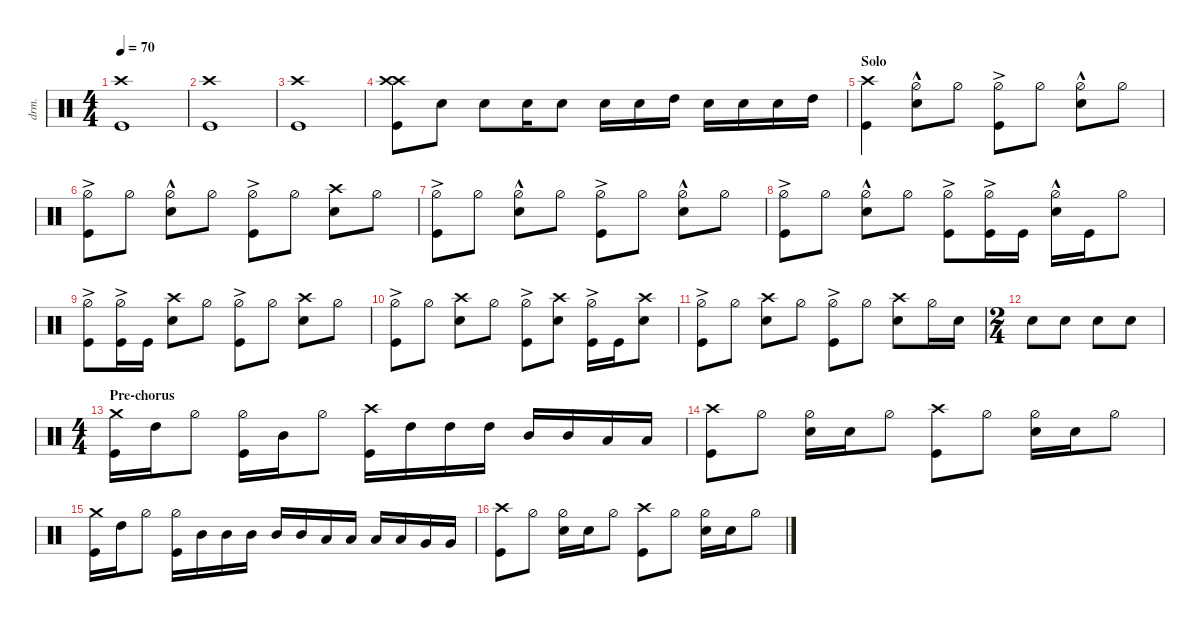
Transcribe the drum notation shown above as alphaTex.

\defaultSystemsLayout 4
\hideDynamics
\bracketExtendMode nobrackets
\otherSystemsTrackNameOrientation horizontal
\track ("Drums" "drm.") {defaultSystemsLayout 4 multiBarRest instrument percussion}
\staff {score}
\articulation defaults
\ts (4 4)
\tempo 70
\clef neutral
\ks c
("Crash high (hit)" "Kick (hit)").1{dy f} |
("Crash high (hit)" "Kick (hit)").1 |
("Crash high (hit)" "Kick (hit)").1 |
("Crash high (hit)" "Kick (hit)" "Crash high (hit)").8 "Snare (hit) 2".8 "Snare (hit) 2".8 "Snare (hit) 2".16 "Snare (hit) 2".8 "Snare (hit) 2".16 "Snare (hit) 2".16 "High Tom (hit)".16{dy ff} "Snare (hit) 2".16{dy f} "Snare (hit) 2".16 "Snare (hit) 2".16 "High Tom (hit)".16{dy ff} |
\section ("" "Solo")
("Crash high (hit)" "Kick (hit)").4{dy f} ("Hi-Hat (half)"{hac} "Snare (hit) 2").8 "Hi-Hat (half)".8 ("Kick (hit)" "Hi-Hat (half)"{ac}).8 "Hi-Hat (half)".8 ("Hi-Hat (half)"{hac} "Snare (hit) 2").8 "Hi-Hat (half)".8 |
("Kick (hit)" "Hi-Hat (half)"{ac}).8 "Hi-Hat (half)".8 ("Hi-Hat (half)"{hac} "Snare (hit) 2").8 "Hi-Hat (half)".8 ("Kick (hit)" "Hi-Hat (half)"{ac}).8 "Hi-Hat (half)".8 ("Snare (hit) 2" "Crash high (hit)").8 "Hi-Hat (half)".8 |
("Kick (hit)" "Hi-Hat (half)"{ac}).8 "Hi-Hat (half)".8 ("Hi-Hat (half)"{hac} "Snare (hit) 2").8 "Hi-Hat (half)".8 ("Kick (hit)" "Hi-Hat (half)"{ac}).8 "Hi-Hat (half)".8 ("Snare (hit) 2" "Hi-Hat (half)"{hac}).8 "Hi-Hat (half)".8 |
("Kick (hit)" "Hi-Hat (half)"{ac}).8 "Hi-Hat (half)".8 ("Hi-Hat (half)"{hac} "Snare (hit) 2").8 "Hi-Hat (half)".8 ("Kick (hit)" "Hi-Hat (half)"{ac}).8 ("Kick (hit)" "Hi-Hat (half)"{ac}).16 "Kick (hit)".16 ("Hi-Hat (half)"{hac} "Snare (hit) 2").16 "Kick (hit)".16 "Hi-Hat (half)".8 |
("Kick (hit)" "Hi-Hat (half)"{ac}).8 ("Kick (hit)" "Hi-Hat (half)"{ac}).16 "Kick (hit)".16 ("Snare (hit) 2" "Crash high (hit)").8 "Hi-Hat (half)".8 ("Kick (hit)" "Hi-Hat (half)"{ac}).8 "Hi-Hat (half)".8 ("Snare (hit) 2" "Crash high (hit)").8 "Hi-Hat (half)".8 |
("Kick (hit)" "Hi-Hat (half)"{ac}).8 "Hi-Hat (half)".8 ("Snare (hit) 2" "Crash high (hit)").8 "Hi-Hat (half)".8 ("Kick (hit)" "Hi-Hat (half)"{ac}).8 ("Snare (hit) 2" "Crash high (hit)").8 ("Kick (hit)" "Hi-Hat (half)"{ac}).16 "Kick (hit)".16 ("Snare (hit) 2" "Crash high (hit)").8 |
("Kick (hit)" "Hi-Hat (half)"{ac}).8 "Hi-Hat (half)".8 ("Snare (hit) 2" "Crash high (hit)").8 "Hi-Hat (half)".8 ("Kick (hit)" "Hi-Hat (half)"{ac}).8 "Hi-Hat (half)".8 ("Snare (hit) 2" "Crash high (hit)").8 "Hi-Hat (half)".16 "Snare (hit) 2".16 |
\ts (2 4)
\beaming (8 2 2)
"Snare (hit) 2".8 "Snare (hit) 2".8 "Snare (hit) 2".8 "Snare (hit) 2".8 |
\ts (4 4)
\beaming (8 2 2 2 2)
\section ("" "Pre-chorus")
("Crash medium (hit)" "Kick (hit)").16 "High Tom (hit)".16{dy ff} "Hi-Hat (half)".8{dy f} ("Kick (hit)" "Hi-Hat (half)").16 "Mid Tom (hit)".16{dy ff} "Hi-Hat (half)".8{dy f} ("Kick (hit)" "Crash high (hit)").16 "High Tom (hit)".16{dy ff} "High Tom (hit)".16 "High Tom (hit)".16 "Mid Tom (hit)".16 "Mid Tom (hit)".16 "Low Tom (hit)".16 "Low Tom (hit)".16 |
("Crash high (hit)" "Kick (hit)").8 "Hi-Hat (half)".8 ("Hi-Hat (half)" "Snare (hit) 2").16 "Snare (hit) 2".16 "Hi-Hat (half)".8 ("Crash high (hit)" "Kick (hit)").8 "Hi-Hat (half)".8 ("Hi-Hat (half)" "Snare (hit) 2").16 "Snare (hit) 2".16 "Hi-Hat (half)".8 |
("Crash medium (hit)" "Kick (hit)").16{dy f} "High Tom (hit)".16{dy ff} "Hi-Hat (half)".8{dy f} ("Kick (hit)" "Hi-Hat (half)").16 "Mid Tom (hit)".16{dy ff} "Mid Tom (hit)".16 "Mid Tom (hit)".16 "Mid Tom (hit)".16 "Mid Tom (hit)".16 "Low Tom (hit)".16 "Low Tom (hit)".16 "Low Tom (hit)".16 "Low Tom (hit)".16 "Very Low Tom (hit)".16 "Very Low Tom (hit)".16 |
("Crash high (hit)" "Kick (hit)").8 "Hi-Hat (half)".8 ("Hi-Hat (half)" "Snare (hit) 2").16 "Snare (hit) 2".16 "Hi-Hat (half)".8 ("Crash high (hit)" "Kick (hit)").8 "Hi-Hat (half)".8 ("Hi-Hat (half)" "Snare (hit) 2").16 "Snare (hit) 2".16 "Hi-Hat (half)".8
